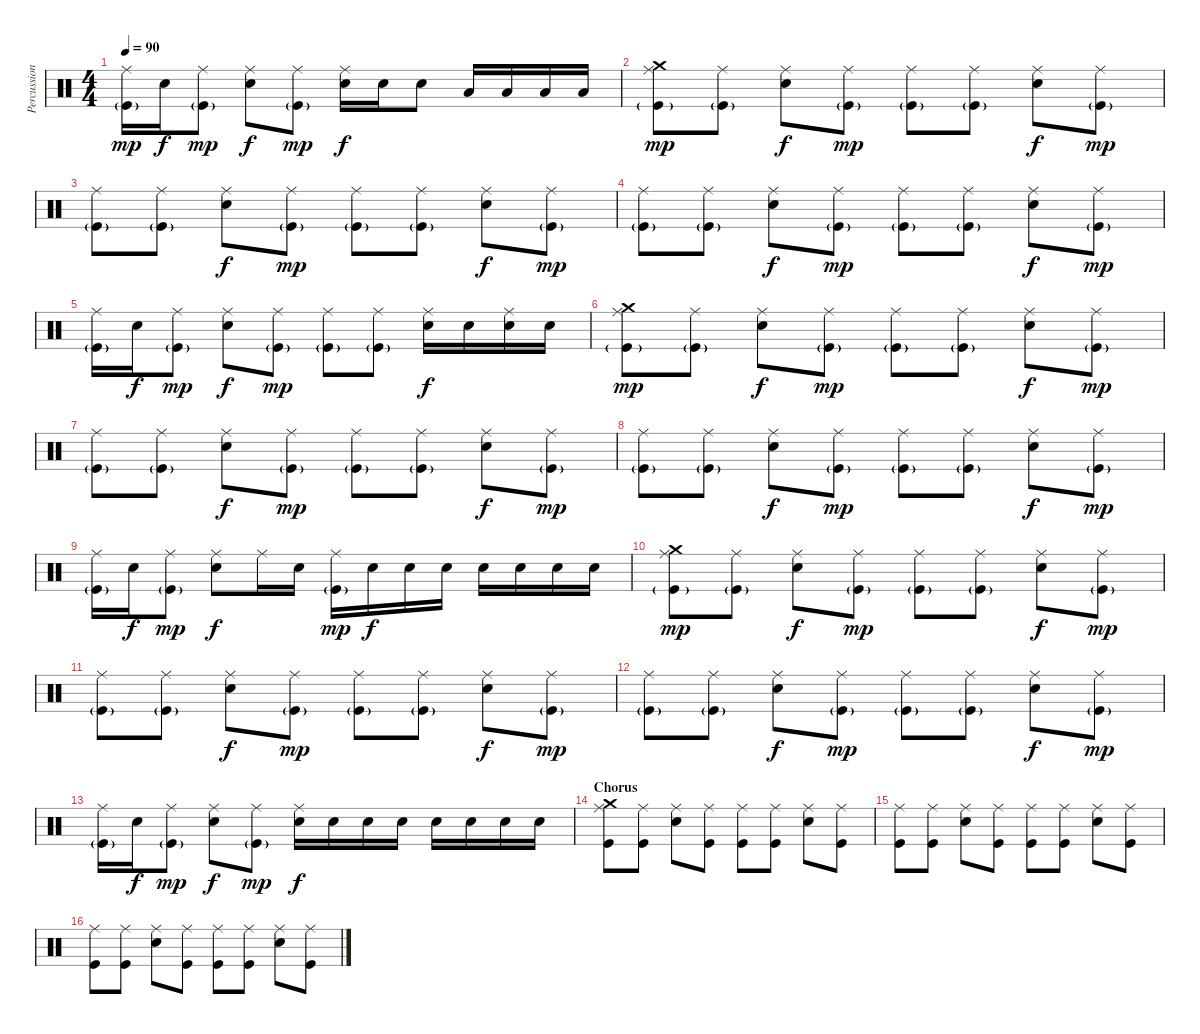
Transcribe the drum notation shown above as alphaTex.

\track ("Percussions" "Percussion") {instrument percussion}
\staff {score}
\articulation defaults
\ts (4 4)
\tempo 90
\clef neutral
\ks c
("Ride (middle)" "Kick (hit)"{g}).16{dy mp} "Snare (hit) 2".16{dy f} ("Ride (middle)" "Kick (hit)"{g}).8{dy mp} ("Ride (middle)" "Snare (hit) 2").8{dy f} ("Ride (middle)" "Kick (hit)"{g}).8{dy mp} ("Ride (middle)" "Snare (hit) 2").16{dy f} "Snare (hit) 2".16 "Snare (hit) 2".8 "Low Tom (hit)".16 "Low Tom (hit)".16 "Low Tom (hit)".16 "Low Tom (hit)".16 |
("Ride (middle)" "Crash medium (hit)" "Kick (hit)"{g}).8{dy mp} ("Ride (middle)" "Kick (hit)"{g}).8 ("Ride (middle)" "Snare (hit) 2").8{dy f} ("Ride (middle)" "Kick (hit)"{g}).8{dy mp} ("Ride (middle)" "Kick (hit)"{g}).8 ("Ride (middle)" "Kick (hit)"{g}).8 ("Ride (middle)" "Snare (hit) 2").8{dy f} ("Ride (middle)" "Kick (hit)"{g}).8{dy mp} |
("Ride (middle)" "Kick (hit)"{g}).8 ("Ride (middle)" "Kick (hit)"{g}).8 ("Ride (middle)" "Snare (hit) 2").8{dy f} ("Ride (middle)" "Kick (hit)"{g}).8{dy mp} ("Ride (middle)" "Kick (hit)"{g}).8 ("Ride (middle)" "Kick (hit)"{g}).8 ("Ride (middle)" "Snare (hit) 2").8{dy f} ("Ride (middle)" "Kick (hit)"{g}).8{dy mp} |
("Ride (middle)" "Kick (hit)"{g}).8 ("Ride (middle)" "Kick (hit)"{g}).8 ("Ride (middle)" "Snare (hit) 2").8{dy f} ("Ride (middle)" "Kick (hit)"{g}).8{dy mp} ("Ride (middle)" "Kick (hit)"{g}).8 ("Ride (middle)" "Kick (hit)"{g}).8 ("Ride (middle)" "Snare (hit) 2").8{dy f} ("Ride (middle)" "Kick (hit)"{g}).8{dy mp} |
("Ride (middle)" "Kick (hit)"{g}).16 "Snare (hit) 2".16{dy f} ("Ride (middle)" "Kick (hit)"{g}).8{dy mp} ("Ride (middle)" "Snare (hit) 2").8{dy f} ("Ride (middle)" "Kick (hit)"{g}).8{dy mp} ("Ride (middle)" "Kick (hit)"{g}).8 ("Ride (middle)" "Kick (hit)"{g}).8 ("Ride (middle)" "Snare (hit) 2").16{dy f} "Snare (hit) 2".16 ("Ride (middle)" "Snare (hit) 2").16 "Snare (hit) 2".16 |
("Ride (middle)" "Crash medium (hit)" "Kick (hit)"{g}).8{dy mp} ("Ride (middle)" "Kick (hit)"{g}).8 ("Ride (middle)" "Snare (hit) 2").8{dy f} ("Ride (middle)" "Kick (hit)"{g}).8{dy mp} ("Ride (middle)" "Kick (hit)"{g}).8 ("Ride (middle)" "Kick (hit)"{g}).8 ("Ride (middle)" "Snare (hit) 2").8{dy f} ("Ride (middle)" "Kick (hit)"{g}).8{dy mp} |
("Ride (middle)" "Kick (hit)"{g}).8 ("Ride (middle)" "Kick (hit)"{g}).8 ("Ride (middle)" "Snare (hit) 2").8{dy f} ("Ride (middle)" "Kick (hit)"{g}).8{dy mp} ("Ride (middle)" "Kick (hit)"{g}).8 ("Ride (middle)" "Kick (hit)"{g}).8 ("Ride (middle)" "Snare (hit) 2").8{dy f} ("Ride (middle)" "Kick (hit)"{g}).8{dy mp} |
("Ride (middle)" "Kick (hit)"{g}).8 ("Ride (middle)" "Kick (hit)"{g}).8 ("Ride (middle)" "Snare (hit) 2").8{dy f} ("Ride (middle)" "Kick (hit)"{g}).8{dy mp} ("Ride (middle)" "Kick (hit)"{g}).8 ("Ride (middle)" "Kick (hit)"{g}).8 ("Ride (middle)" "Snare (hit) 2").8{dy f} ("Ride (middle)" "Kick (hit)"{g}).8{dy mp} |
("Ride (middle)" "Kick (hit)"{g}).16 "Snare (hit) 2".16{dy f} ("Ride (middle)" "Kick (hit)"{g}).8{dy mp} ("Ride (middle)" "Snare (hit) 2").8{dy f} "Ride (middle)".16 "Snare (hit) 2".16 ("Ride (middle)" "Kick (hit)"{g}).16{dy mp} "Snare (hit) 2".16{dy f} "Snare (hit) 2".16 "Snare (hit) 2".16 "Snare (hit) 2".16 "Snare (hit) 2".16 "Snare (hit) 2".16 "Snare (hit) 2".16 |
("Ride (middle)" "Crash medium (hit)" "Kick (hit)"{g}).8{dy mp} ("Ride (middle)" "Kick (hit)"{g}).8 ("Ride (middle)" "Snare (hit) 2").8{dy f} ("Ride (middle)" "Kick (hit)"{g}).8{dy mp} ("Ride (middle)" "Kick (hit)"{g}).8 ("Ride (middle)" "Kick (hit)"{g}).8 ("Ride (middle)" "Snare (hit) 2").8{dy f} ("Ride (middle)" "Kick (hit)"{g}).8{dy mp} |
("Ride (middle)" "Kick (hit)"{g}).8 ("Ride (middle)" "Kick (hit)"{g}).8 ("Ride (middle)" "Snare (hit) 2").8{dy f} ("Ride (middle)" "Kick (hit)"{g}).8{dy mp} ("Ride (middle)" "Kick (hit)"{g}).8 ("Ride (middle)" "Kick (hit)"{g}).8 ("Ride (middle)" "Snare (hit) 2").8{dy f} ("Ride (middle)" "Kick (hit)"{g}).8{dy mp} |
("Ride (middle)" "Kick (hit)"{g}).8 ("Ride (middle)" "Kick (hit)"{g}).8 ("Ride (middle)" "Snare (hit) 2").8{dy f} ("Ride (middle)" "Kick (hit)"{g}).8{dy mp} ("Ride (middle)" "Kick (hit)"{g}).8 ("Ride (middle)" "Kick (hit)"{g}).8 ("Ride (middle)" "Snare (hit) 2").8{dy f} ("Ride (middle)" "Kick (hit)"{g}).8{dy mp} |
("Ride (middle)" "Kick (hit)"{g}).16 "Snare (hit) 2".16{dy f} ("Ride (middle)" "Kick (hit)"{g}).8{dy mp} ("Ride (middle)" "Snare (hit) 2").8{dy f} ("Ride (middle)" "Kick (hit)"{g}).8{dy mp} ("Ride (middle)" "Snare (hit) 2").16{dy f} "Snare (hit) 2".16 "Snare (hit) 2".16 "Snare (hit) 2".16 "Snare (hit) 2".16 "Snare (hit) 2".16 "Snare (hit) 2".16 "Snare (hit) 2".16 |
\section ("" "Chorus")
("Ride (middle)" "Crash medium (hit)" "Kick (hit)").8 ("Ride (middle)" "Kick (hit)").8 ("Ride (middle)" "Snare (hit) 2").8 ("Ride (middle)" "Kick (hit)").8 ("Ride (middle)" "Kick (hit)").8 ("Ride (middle)" "Kick (hit)").8 ("Ride (middle)" "Snare (hit) 2").8 ("Ride (middle)" "Kick (hit)").8 |
("Ride (middle)" "Kick (hit)").8 ("Ride (middle)" "Kick (hit)").8 ("Ride (middle)" "Snare (hit) 2").8 ("Ride (middle)" "Kick (hit)").8 ("Ride (middle)" "Kick (hit)").8 ("Ride (middle)" "Kick (hit)").8 ("Ride (middle)" "Snare (hit) 2").8 ("Ride (middle)" "Kick (hit)").8 |
("Ride (middle)" "Kick (hit)").8 ("Ride (middle)" "Kick (hit)").8 ("Ride (middle)" "Snare (hit) 2").8 ("Ride (middle)" "Kick (hit)").8 ("Ride (middle)" "Kick (hit)").8 ("Ride (middle)" "Kick (hit)").8 ("Ride (middle)" "Snare (hit) 2").8 ("Ride (middle)" "Kick (hit)").8
